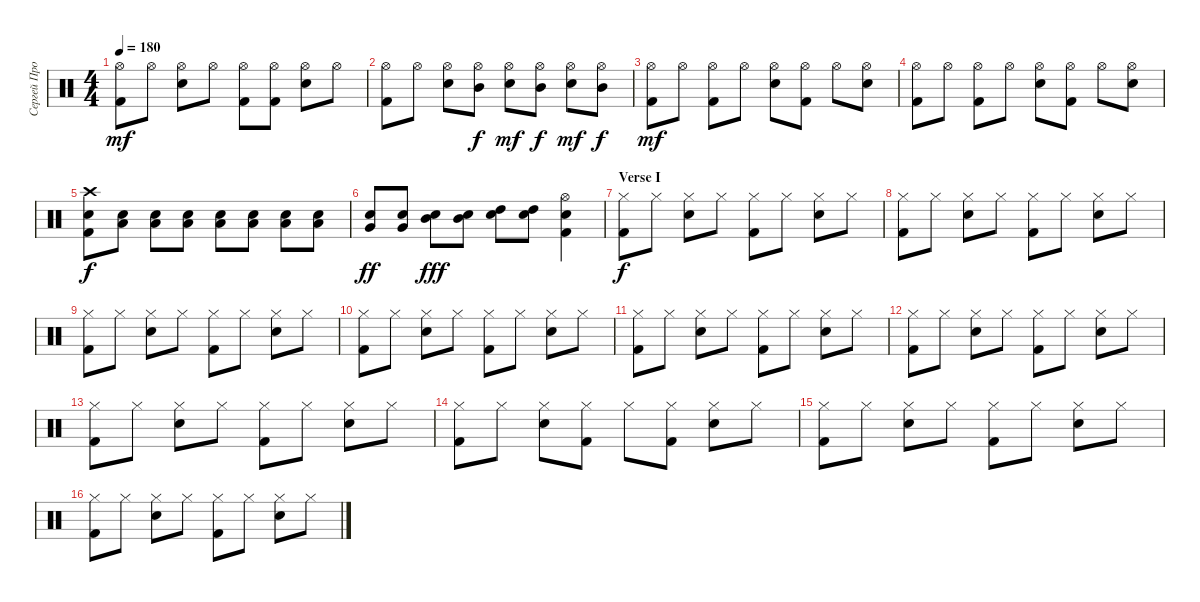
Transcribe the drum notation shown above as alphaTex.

\track ("Сергей Прокофьев" "Сергей Про") {instrument percussion}
\staff {score}
\articulation defaults
\ts (4 4)
\tempo 180
\clef neutral
\ks c
("Hi-Hat (open)" "Kick (hit) 2").8{dy mf} "Hi-Hat (open)".8 ("Hi-Hat (open)" "Snare (hit) 2").8 "Hi-Hat (open)".8 ("Hi-Hat (open)" "Kick (hit) 2").8 ("Hi-Hat (open)" "Kick (hit) 2").8 ("Hi-Hat (open)" "Snare (hit) 2").8 "Hi-Hat (open)".8 |
("Hi-Hat (open)" "Kick (hit) 2").8 "Hi-Hat (open)".8 ("Hi-Hat (open)" "Snare (hit) 2").8 ("Hi-Hat (open)" "Mid Tom (hit)").8{dy f} ("Hi-Hat (open)" "Snare (hit) 2").8{dy mf} ("Hi-Hat (open)" "Mid Tom (hit)").8{dy f} ("Hi-Hat (open)" "Snare (hit) 2").8{dy mf} ("Hi-Hat (open)" "Mid Tom (hit)").8{dy f} |
("Hi-Hat (open)" "Kick (hit) 2").8{dy mf} "Hi-Hat (open)".8 ("Hi-Hat (open)" "Kick (hit) 2").8 "Hi-Hat (open)".8 ("Hi-Hat (open)" "Snare (hit) 2").8 ("Hi-Hat (open)" "Kick (hit) 2").8 "Hi-Hat (open)".8 ("Hi-Hat (open)" "Snare (hit) 2").8 |
("Hi-Hat (open)" "Kick (hit) 2").8 "Hi-Hat (open)".8 ("Hi-Hat (open)" "Kick (hit) 2").8 "Hi-Hat (open)".8 ("Hi-Hat (open)" "Snare (hit) 2").8 ("Hi-Hat (open)" "Kick (hit) 2").8 "Hi-Hat (open)".8 ("Hi-Hat (open)" "Snare (hit) 2").8 |
("Crash high (hit)" "Snare (hit) 2" "Kick (hit) 2").8{dy f} ("Snare (hit) 2" "Low Floor Tom (hit)").8 ("Snare (hit) 2" "Low Floor Tom (hit)").8 ("Snare (hit) 2" "Low Floor Tom (hit)").8 ("Snare (hit) 2" "Low Floor Tom (hit)").8 ("Snare (hit) 2" "Low Floor Tom (hit)").8 ("Snare (hit) 2" "Low Floor Tom (hit)").8 ("Snare (hit) 2" "Low Floor Tom (hit)").8 |
("Snare (hit) 2" "Very Low Tom (hit)").8{dy ff} ("Snare (hit) 2" "Very Low Tom (hit)").8 ("Snare (hit) 2" "Mid Tom (hit)").8{dy fff} ("Snare (hit) 2" "Mid Tom (hit)").8 ("Snare (hit) 2" "High Tom (hit)").8 ("Snare (hit) 2" "High Tom (hit)").8 ("Hi-Hat (open)" "Snare (hit) 2" "Kick (hit) 2").4 |
\section ("" "Verse I")
("Hi-Hat (closed)" "Kick (hit) 2").8{dy f} "Hi-Hat (closed)".8 ("Hi-Hat (closed)" "Snare (hit) 2").8 "Hi-Hat (closed)".8 ("Hi-Hat (closed)" "Kick (hit) 2").8 "Hi-Hat (closed)".8 ("Hi-Hat (closed)" "Snare (hit) 2").8 "Hi-Hat (closed)".8 |
("Hi-Hat (closed)" "Kick (hit) 2").8 "Hi-Hat (closed)".8 ("Hi-Hat (closed)" "Snare (hit) 2").8 "Hi-Hat (closed)".8 ("Hi-Hat (closed)" "Kick (hit) 2").8 "Hi-Hat (closed)".8 ("Hi-Hat (closed)" "Snare (hit) 2").8 "Hi-Hat (closed)".8 |
("Hi-Hat (closed)" "Kick (hit) 2").8 "Hi-Hat (closed)".8 ("Hi-Hat (closed)" "Snare (hit) 2").8 "Hi-Hat (closed)".8 ("Hi-Hat (closed)" "Kick (hit) 2").8 "Hi-Hat (closed)".8 ("Hi-Hat (closed)" "Snare (hit) 2").8 "Hi-Hat (closed)".8 |
("Hi-Hat (closed)" "Kick (hit) 2").8 "Hi-Hat (closed)".8 ("Hi-Hat (closed)" "Snare (hit) 2").8 "Hi-Hat (closed)".8 ("Hi-Hat (closed)" "Kick (hit) 2").8 "Hi-Hat (closed)".8 ("Hi-Hat (closed)" "Snare (hit) 2").8 "Hi-Hat (closed)".8 |
("Hi-Hat (closed)" "Kick (hit) 2").8 "Hi-Hat (closed)".8 ("Hi-Hat (closed)" "Snare (hit) 2").8 "Hi-Hat (closed)".8 ("Hi-Hat (closed)" "Kick (hit) 2").8 "Hi-Hat (closed)".8 ("Hi-Hat (closed)" "Snare (hit) 2").8 "Hi-Hat (closed)".8 |
("Hi-Hat (closed)" "Kick (hit) 2").8 "Hi-Hat (closed)".8 ("Hi-Hat (closed)" "Snare (hit) 2").8 "Hi-Hat (closed)".8 ("Hi-Hat (closed)" "Kick (hit) 2").8 "Hi-Hat (closed)".8 ("Hi-Hat (closed)" "Snare (hit) 2").8 "Hi-Hat (closed)".8 |
("Hi-Hat (closed)" "Kick (hit) 2").8 "Hi-Hat (closed)".8 ("Hi-Hat (closed)" "Snare (hit) 2").8 "Hi-Hat (closed)".8 ("Hi-Hat (closed)" "Kick (hit) 2").8 "Hi-Hat (closed)".8 ("Hi-Hat (closed)" "Snare (hit) 2").8 "Hi-Hat (closed)".8 |
("Hi-Hat (closed)" "Kick (hit) 2").8 "Hi-Hat (closed)".8 ("Hi-Hat (closed)" "Snare (hit) 2").8 ("Hi-Hat (closed)" "Kick (hit) 2").8 "Hi-Hat (closed)".8 ("Hi-Hat (closed)" "Kick (hit) 2").8 ("Hi-Hat (closed)" "Snare (hit) 2").8 "Hi-Hat (closed)".8 |
("Hi-Hat (closed)" "Kick (hit) 2").8 "Hi-Hat (closed)".8 ("Hi-Hat (closed)" "Snare (hit) 2").8 "Hi-Hat (closed)".8 ("Hi-Hat (closed)" "Kick (hit) 2").8 "Hi-Hat (closed)".8 ("Hi-Hat (closed)" "Snare (hit) 2").8 "Hi-Hat (closed)".8 |
("Hi-Hat (closed)" "Kick (hit) 2").8 "Hi-Hat (closed)".8 ("Hi-Hat (closed)" "Snare (hit) 2").8 "Hi-Hat (closed)".8 ("Hi-Hat (closed)" "Kick (hit) 2").8 "Hi-Hat (closed)".8 ("Hi-Hat (closed)" "Snare (hit) 2").8 "Hi-Hat (closed)".8
